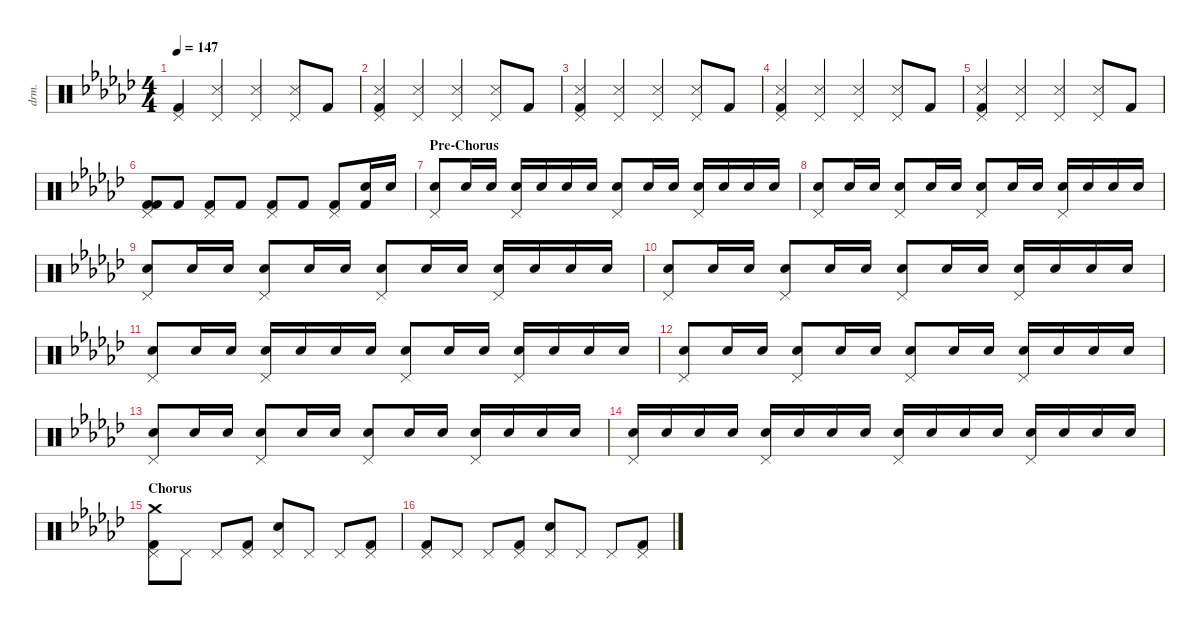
\defaultSystemsLayout 8
\hideDynamics
\bracketExtendMode nobrackets
\otherSystemsTrackNameOrientation horizontal
\track ("Drums" "drm.") {defaultSystemsLayout 4 instrument percussion}
\staff {score}
\articulation defaults
\ts (4 4)
\tempo 147
\clef neutral
\ks ebminor
("Pedal Hi-Hat (hit)"{acc forcenatural} "Kick (hit) 2"{acc forcenatural}).4{dy f beam Up} ("Pedal Hi-Hat (hit)"{acc forcenatural} "Snare (side stick) 3"{acc forcenatural}).4{beam Up} ("Pedal Hi-Hat (hit)"{acc forcenatural} "Snare (side stick) 3"{acc forcenatural}).4{beam Up} ("Pedal Hi-Hat (hit)"{acc forcenatural} "Snare (side stick) 3"{acc forcenatural}).8{beam Up} "Kick (hit) 2"{acc forcenatural}.8{beam Up} |
("Pedal Hi-Hat (hit)"{acc forcenatural} "Kick (hit) 2"{acc forcenatural} "Snare (side stick) 3"{acc forcenatural}).4{beam Up} ("Pedal Hi-Hat (hit)"{acc forcenatural} "Snare (side stick) 3"{acc forcenatural}).4{beam Up} ("Pedal Hi-Hat (hit)"{acc forcenatural} "Snare (side stick) 3"{acc forcenatural}).4{beam Up} ("Pedal Hi-Hat (hit)"{acc forcenatural} "Snare (side stick) 3"{acc forcenatural}).8{beam Up} "Kick (hit) 2"{acc forcenatural}.8{beam Up} |
("Pedal Hi-Hat (hit)"{acc forcenatural} "Kick (hit) 2"{acc forcenatural} "Snare (side stick) 3"{acc forcenatural}).4{beam Up} ("Pedal Hi-Hat (hit)"{acc forcenatural} "Snare (side stick) 3"{acc forcenatural}).4{beam Up} ("Pedal Hi-Hat (hit)"{acc forcenatural} "Snare (side stick) 3"{acc forcenatural}).4{beam Up} ("Pedal Hi-Hat (hit)"{acc forcenatural} "Snare (side stick) 3"{acc forcenatural}).8{beam Up} "Kick (hit) 2"{acc forcenatural}.8{beam Up} |
("Pedal Hi-Hat (hit)"{acc forcenatural} "Kick (hit) 2"{acc forcenatural} "Snare (side stick) 3"{acc forcenatural}).4{beam Up} ("Pedal Hi-Hat (hit)"{acc forcenatural} "Snare (side stick) 3"{acc forcenatural}).4{beam Up} ("Pedal Hi-Hat (hit)"{acc forcenatural} "Snare (side stick) 3"{acc forcenatural}).4{beam Up} ("Pedal Hi-Hat (hit)"{acc forcenatural} "Snare (side stick) 3"{acc forcenatural}).8{beam Up} "Kick (hit) 2"{acc forcenatural}.8{beam Up} |
("Pedal Hi-Hat (hit)"{acc forcenatural} "Kick (hit) 2"{acc forcenatural} "Snare (side stick) 3"{acc forcenatural}).4{beam Up} ("Pedal Hi-Hat (hit)"{acc forcenatural} "Snare (side stick) 3"{acc forcenatural}).4{beam Up} ("Pedal Hi-Hat (hit)"{acc forcenatural} "Snare (side stick) 3"{acc forcenatural}).4{beam Up} ("Pedal Hi-Hat (hit)"{acc forcenatural} "Snare (side stick) 3"{acc forcenatural}).8{beam Up} "Kick (hit) 2"{acc forcenatural}.8{beam Up} |
("Pedal Hi-Hat (hit)"{acc forcenatural} "Kick (hit) 2"{acc forcenatural} "Kick (hit) 2"{acc forcenatural}).8{beam Up} "Kick (hit) 2"{acc forcenatural}.8{dy mf beam Up} ("Pedal Hi-Hat (hit)"{acc forcenatural} "Kick (hit) 2"{acc forcenatural}).8{dy f beam Up} "Kick (hit) 2"{acc forcenatural}.8{beam Up} ("Pedal Hi-Hat (hit)"{acc forcenatural} "Kick (hit) 2"{acc forcenatural}).8{beam Up} "Kick (hit) 2"{acc forcenatural}.8{dy ff beam Up} ("Pedal Hi-Hat (hit)"{acc forcenatural} "Kick (hit) 2"{acc forcenatural}).8{dy f beam Up} ("Kick (hit) 2"{acc forcenatural} "Snare (hit) 2"{acc forcenatural}).16{dy fff beam Up} "Snare (hit) 2"{acc forcenatural}.16{dy mf beam Up} |
\section ("" "Pre-Chorus")
("Pedal Hi-Hat (hit)"{acc forcenatural} "Snare (hit) 2"{acc forcenatural}).8{dy f beam Up} "Snare (hit) 2"{acc forcenatural}.16{dy mf beam Up} "Snare (hit) 2"{acc forcenatural}.16{beam Up} ("Pedal Hi-Hat (hit)"{acc forcenatural} "Snare (hit) 2"{acc forcenatural}).16{dy f beam Up} "Snare (hit) 2"{acc forcenatural}.16{dy mf beam Up} "Snare (hit) 2"{acc forcenatural}.16{beam Up} "Snare (hit) 2"{acc forcenatural}.16{beam Up} ("Pedal Hi-Hat (hit)"{acc forcenatural} "Snare (hit) 2"{acc forcenatural}).8{dy f beam Up} "Snare (hit) 2"{acc forcenatural}.16{dy mf beam Up} "Snare (hit) 2"{acc forcenatural}.16{beam Up} ("Pedal Hi-Hat (hit)"{acc forcenatural} "Snare (hit) 2"{acc forcenatural}).16{dy f beam Up} "Snare (hit) 2"{acc forcenatural}.16{dy mf beam Up} "Snare (hit) 2"{acc forcenatural}.16{beam Up} "Snare (hit) 2"{acc forcenatural}.16{beam Up} |
("Pedal Hi-Hat (hit)"{acc forcenatural} "Snare (hit) 2"{acc forcenatural}).8{dy f beam Up} "Snare (hit) 2"{acc forcenatural}.16{dy mf beam Up} "Snare (hit) 2"{acc forcenatural}.16{beam Up} ("Pedal Hi-Hat (hit)"{acc forcenatural} "Snare (hit) 2"{acc forcenatural}).8{dy f beam Up} "Snare (hit) 2"{acc forcenatural}.16{dy mf beam Up} "Snare (hit) 2"{acc forcenatural}.16{beam Up} ("Pedal Hi-Hat (hit)"{acc forcenatural} "Snare (hit) 2"{acc forcenatural}).8{dy f beam Up} "Snare (hit) 2"{acc forcenatural}.16{dy mf beam Up} "Snare (hit) 2"{acc forcenatural}.16{beam Up} ("Pedal Hi-Hat (hit)"{acc forcenatural} "Snare (hit) 2"{acc forcenatural}).16{dy f beam Up} "Snare (hit) 2"{acc forcenatural}.16{dy mf beam Up} "Snare (hit) 2"{acc forcenatural}.16{beam Up} "Snare (hit) 2"{acc forcenatural}.16{beam Up} |
("Pedal Hi-Hat (hit)"{acc forcenatural} "Snare (hit) 2"{acc forcenatural}).8{dy f beam Up} "Snare (hit) 2"{acc forcenatural}.16{dy mf beam Up} "Snare (hit) 2"{acc forcenatural}.16{beam Up} ("Pedal Hi-Hat (hit)"{acc forcenatural} "Snare (hit) 2"{acc forcenatural}).8{dy f beam Up} "Snare (hit) 2"{acc forcenatural}.16{dy mf beam Up} "Snare (hit) 2"{acc forcenatural}.16{beam Up} ("Pedal Hi-Hat (hit)"{acc forcenatural} "Snare (hit) 2"{acc forcenatural}).8{dy f beam Up} "Snare (hit) 2"{acc forcenatural}.16{dy mf beam Up} "Snare (hit) 2"{acc forcenatural}.16{beam Up} ("Pedal Hi-Hat (hit)"{acc forcenatural} "Snare (hit) 2"{acc forcenatural}).16{dy f beam Up} "Snare (hit) 2"{acc forcenatural}.16{dy mf beam Up} "Snare (hit) 2"{acc forcenatural}.16{beam Up} "Snare (hit) 2"{acc forcenatural}.16{beam Up} |
("Pedal Hi-Hat (hit)"{acc forcenatural} "Snare (hit) 2"{acc forcenatural}).8{dy f beam Up} "Snare (hit) 2"{acc forcenatural}.16{dy mf beam Up} "Snare (hit) 2"{acc forcenatural}.16{beam Up} ("Pedal Hi-Hat (hit)"{acc forcenatural} "Snare (hit) 2"{acc forcenatural}).8{dy f beam Up} "Snare (hit) 2"{acc forcenatural}.16{dy mf beam Up} "Snare (hit) 2"{acc forcenatural}.16{beam Up} ("Pedal Hi-Hat (hit)"{acc forcenatural} "Snare (hit) 2"{acc forcenatural}).8{dy f beam Up} "Snare (hit) 2"{acc forcenatural}.16{dy mf beam Up} "Snare (hit) 2"{acc forcenatural}.16{beam Up} ("Pedal Hi-Hat (hit)"{acc forcenatural} "Snare (hit) 2"{acc forcenatural}).16{dy f beam Up} "Snare (hit) 2"{acc forcenatural}.16{dy mf beam Up} "Snare (hit) 2"{acc forcenatural}.16{beam Up} "Snare (hit) 2"{acc forcenatural}.16{beam Up} |
("Pedal Hi-Hat (hit)"{acc forcenatural} "Snare (hit) 2"{acc forcenatural}).8{dy f beam Up} "Snare (hit) 2"{acc forcenatural}.16{dy mf beam Up} "Snare (hit) 2"{acc forcenatural}.16{beam Up} ("Pedal Hi-Hat (hit)"{acc forcenatural} "Snare (hit) 2"{acc forcenatural}).16{dy f beam Up} "Snare (hit) 2"{acc forcenatural}.16{dy mf beam Up} "Snare (hit) 2"{acc forcenatural}.16{beam Up} "Snare (hit) 2"{acc forcenatural}.16{beam Up} ("Pedal Hi-Hat (hit)"{acc forcenatural} "Snare (hit) 2"{acc forcenatural}).8{dy f beam Up} "Snare (hit) 2"{acc forcenatural}.16{dy mf beam Up} "Snare (hit) 2"{acc forcenatural}.16{beam Up} ("Pedal Hi-Hat (hit)"{acc forcenatural} "Snare (hit) 2"{acc forcenatural}).16{dy f beam Up} "Snare (hit) 2"{acc forcenatural}.16{dy mf beam Up} "Snare (hit) 2"{acc forcenatural}.16{beam Up} "Snare (hit) 2"{acc forcenatural}.16{beam Up} |
("Pedal Hi-Hat (hit)"{acc forcenatural} "Snare (hit) 2"{acc forcenatural}).8{dy f beam Up} "Snare (hit) 2"{acc forcenatural}.16{dy mf beam Up} "Snare (hit) 2"{acc forcenatural}.16{beam Up} ("Pedal Hi-Hat (hit)"{acc forcenatural} "Snare (hit) 2"{acc forcenatural}).8{dy f beam Up} "Snare (hit) 2"{acc forcenatural}.16{dy mf beam Up} "Snare (hit) 2"{acc forcenatural}.16{beam Up} ("Pedal Hi-Hat (hit)"{acc forcenatural} "Snare (hit) 2"{acc forcenatural}).8{dy f beam Up} "Snare (hit) 2"{acc forcenatural}.16{dy mf beam Up} "Snare (hit) 2"{acc forcenatural}.16{beam Up} ("Pedal Hi-Hat (hit)"{acc forcenatural} "Snare (hit) 2"{acc forcenatural}).16{dy f beam Up} "Snare (hit) 2"{acc forcenatural}.16{dy mf beam Up} "Snare (hit) 2"{acc forcenatural}.16{beam Up} "Snare (hit) 2"{acc forcenatural}.16{beam Up} |
("Pedal Hi-Hat (hit)"{acc forcenatural} "Snare (hit) 2"{acc forcenatural}).8{dy f beam Up} "Snare (hit) 2"{acc forcenatural}.16{dy mf beam Up} "Snare (hit) 2"{acc forcenatural}.16{beam Up} ("Pedal Hi-Hat (hit)"{acc forcenatural} "Snare (hit) 2"{acc forcenatural}).8{dy f beam Up} "Snare (hit) 2"{acc forcenatural}.16{dy mf beam Up} "Snare (hit) 2"{acc forcenatural}.16{beam Up} ("Pedal Hi-Hat (hit)"{acc forcenatural} "Snare (hit) 2"{acc forcenatural}).8{dy f beam Up} "Snare (hit) 2"{acc forcenatural}.16{dy mf beam Up} "Snare (hit) 2"{acc forcenatural}.16{beam Up} ("Pedal Hi-Hat (hit)"{acc forcenatural} "Snare (hit) 2"{acc forcenatural}).16{dy f beam Up} "Snare (hit) 2"{acc forcenatural}.16{dy mf beam Up} "Snare (hit) 2"{acc forcenatural}.16{beam Up} "Snare (hit) 2"{acc forcenatural}.16{beam Up} |
("Pedal Hi-Hat (hit)"{acc forcenatural} "Snare (hit) 2"{acc forcenatural}).16{dy f beam Up} "Snare (hit) 2"{acc forcenatural}.16{dy fff beam Up} "Snare (hit) 2"{acc forcenatural}.16{dy mp beam Up} "Snare (hit) 2"{acc forcenatural}.16{beam Up} ("Pedal Hi-Hat (hit)"{acc forcenatural} "Snare (hit) 2"{acc forcenatural}).16{dy f beam Up} "Snare (hit) 2"{acc forcenatural}.16{dy mf beam Up} "Snare (hit) 2"{acc forcenatural}.16{beam Up} "Snare (hit) 2"{acc forcenatural}.16{beam Up} ("Pedal Hi-Hat (hit)"{acc forcenatural} "Snare (hit) 2"{acc forcenatural}).16{dy f beam Up} "Snare (hit) 2"{acc forcenatural}.16{beam Up} "Snare (hit) 2"{acc forcenatural}.16{beam Up} "Snare (hit) 2"{acc forcenatural}.16{beam Up} ("Pedal Hi-Hat (hit)"{acc forcenatural} "Snare (hit) 2"{acc forcenatural}).16{beam Up} "Snare (hit) 2"{acc forcenatural}.16{dy ff beam Up} "Snare (hit) 2"{acc forcenatural}.16{beam Up} "Snare (hit) 2"{acc forcenatural}.16{dy fff beam Up} |
\section ("" "Chorus")
("Pedal Hi-Hat (hit)"{acc forcenatural} "Kick (hit) 2"{acc forcenatural} "Crash medium (hit)"{acc forcenatural}).8{dy f beam Down} "Pedal Hi-Hat (hit)"{acc forcenatural}.8{dy mp beam Down} "Pedal Hi-Hat (hit)"{acc forcenatural}.8{dy f beam Up} ("Pedal Hi-Hat (hit)"{acc forcenatural} "Kick (hit) 2"{acc forcenatural}).8{dy mp beam Up} ("Pedal Hi-Hat (hit)"{acc forcenatural} "Snare (hit) 2"{acc forcenatural}).8{dy f beam Up} "Pedal Hi-Hat (hit)"{acc forcenatural}.8{dy mp beam Up} "Pedal Hi-Hat (hit)"{acc forcenatural}.8{dy f beam Up} ("Pedal Hi-Hat (hit)"{acc forcenatural} "Kick (hit) 2"{acc forcenatural}).8{dy mp beam Up} |
("Pedal Hi-Hat (hit)"{acc forcenatural} "Kick (hit) 2"{acc forcenatural}).8{dy f beam Up} "Pedal Hi-Hat (hit)"{acc forcenatural}.8{dy mp beam Up} "Pedal Hi-Hat (hit)"{acc forcenatural}.8{dy f beam Up} ("Pedal Hi-Hat (hit)"{acc forcenatural} "Kick (hit) 2"{acc forcenatural}).8{dy mp beam Up} ("Pedal Hi-Hat (hit)"{acc forcenatural} "Snare (hit) 2"{acc forcenatural}).8{dy f beam Up} "Pedal Hi-Hat (hit)"{acc forcenatural}.8{dy mp beam Up} "Pedal Hi-Hat (hit)"{acc forcenatural}.8{dy f beam Up} ("Pedal Hi-Hat (hit)"{acc forcenatural} "Kick (hit) 2"{acc forcenatural}).8{dy mp beam Up}
